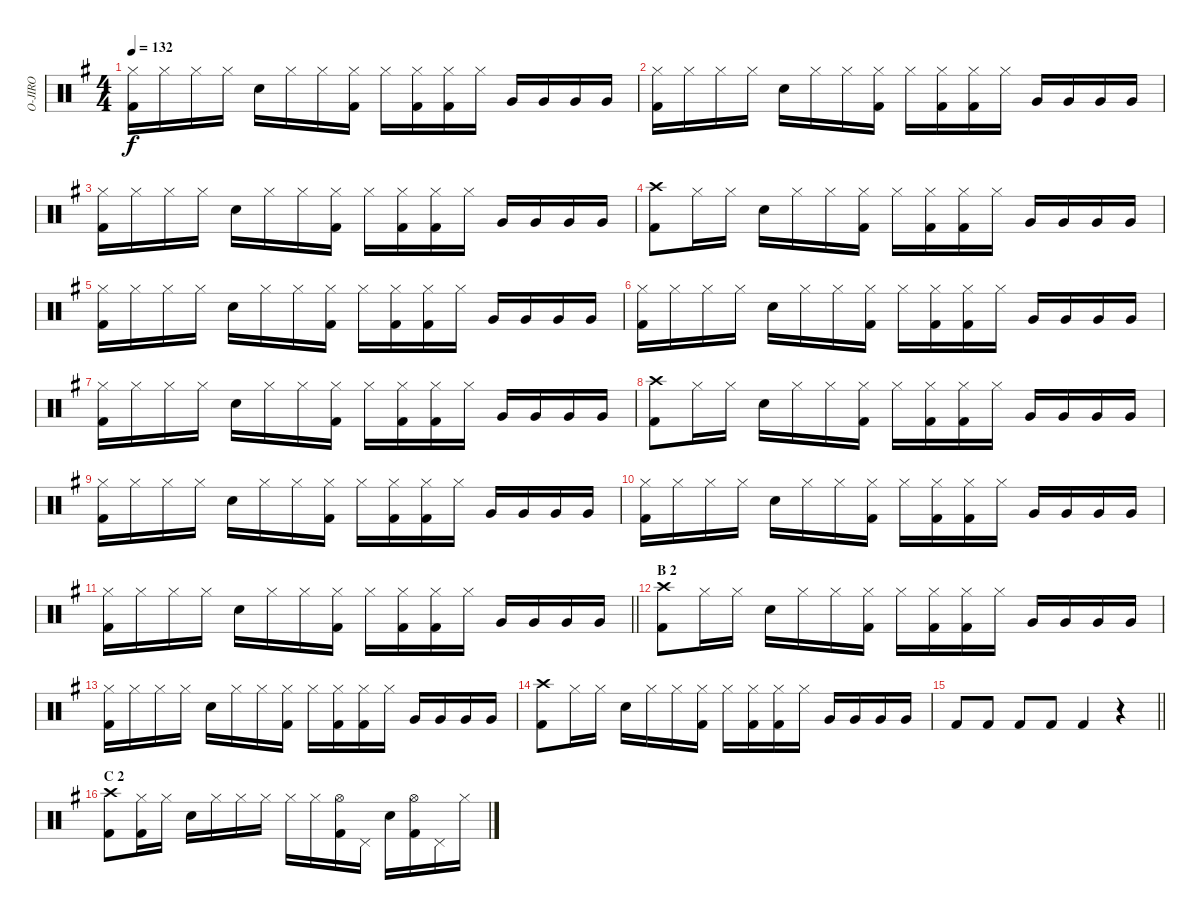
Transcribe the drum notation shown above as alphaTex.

\track ("O-JIRO" "O-JIRO") {instrument percussion}
\staff {score}
\articulation defaults
\ts (4 4)
\tempo 132
\clef neutral
\ks g
("Hi-Hat (closed)" "Kick (hit) 2").16{dy f} "Hi-Hat (closed)".16 "Hi-Hat (closed)".16 "Hi-Hat (closed)".16 "Snare (hit) 2".16 "Hi-Hat (closed)".16 "Hi-Hat (closed)".16 ("Hi-Hat (closed)" "Kick (hit) 2").16 "Hi-Hat (closed)".16 ("Hi-Hat (closed)" "Kick (hit) 2").16 ("Hi-Hat (closed)" "Kick (hit) 2").16 "Hi-Hat (closed)".16 "Very Low Tom (hit)".16 "Very Low Tom (hit)".16 "Very Low Tom (hit)".16 "Very Low Tom (hit)".16 |
("Hi-Hat (closed)" "Kick (hit) 2").16 "Hi-Hat (closed)".16 "Hi-Hat (closed)".16 "Hi-Hat (closed)".16 "Snare (hit) 2".16 "Hi-Hat (closed)".16 "Hi-Hat (closed)".16 ("Hi-Hat (closed)" "Kick (hit) 2").16 "Hi-Hat (closed)".16 ("Hi-Hat (closed)" "Kick (hit) 2").16 ("Hi-Hat (closed)" "Kick (hit) 2").16 "Hi-Hat (closed)".16 "Very Low Tom (hit)".16 "Very Low Tom (hit)".16 "Very Low Tom (hit)".16 "Very Low Tom (hit)".16 |
("Hi-Hat (closed)" "Kick (hit) 2").16 "Hi-Hat (closed)".16 "Hi-Hat (closed)".16 "Hi-Hat (closed)".16 "Snare (hit) 2".16 "Hi-Hat (closed)".16 "Hi-Hat (closed)".16 ("Hi-Hat (closed)" "Kick (hit) 2").16 "Hi-Hat (closed)".16 ("Hi-Hat (closed)" "Kick (hit) 2").16 ("Hi-Hat (closed)" "Kick (hit) 2").16 "Hi-Hat (closed)".16 "Very Low Tom (hit)".16 "Very Low Tom (hit)".16 "Very Low Tom (hit)".16 "Very Low Tom (hit)".16 |
("Crash high (hit)" "Kick (hit) 2").8 "Hi-Hat (closed)".16 "Hi-Hat (closed)".16 "Snare (hit) 2".16 "Hi-Hat (closed)".16 "Hi-Hat (closed)".16 ("Hi-Hat (closed)" "Kick (hit) 2").16 "Hi-Hat (closed)".16 ("Hi-Hat (closed)" "Kick (hit) 2").16 ("Hi-Hat (closed)" "Kick (hit) 2").16 "Hi-Hat (closed)".16 "Very Low Tom (hit)".16 "Very Low Tom (hit)".16 "Very Low Tom (hit)".16 "Very Low Tom (hit)".16 |
("Hi-Hat (closed)" "Kick (hit) 2").16 "Hi-Hat (closed)".16 "Hi-Hat (closed)".16 "Hi-Hat (closed)".16 "Snare (hit) 2".16 "Hi-Hat (closed)".16 "Hi-Hat (closed)".16 ("Hi-Hat (closed)" "Kick (hit) 2").16 "Hi-Hat (closed)".16 ("Hi-Hat (closed)" "Kick (hit) 2").16 ("Hi-Hat (closed)" "Kick (hit) 2").16 "Hi-Hat (closed)".16 "Very Low Tom (hit)".16 "Very Low Tom (hit)".16 "Very Low Tom (hit)".16 "Very Low Tom (hit)".16 |
("Hi-Hat (closed)" "Kick (hit) 2").16 "Hi-Hat (closed)".16 "Hi-Hat (closed)".16 "Hi-Hat (closed)".16 "Snare (hit) 2".16 "Hi-Hat (closed)".16 "Hi-Hat (closed)".16 ("Hi-Hat (closed)" "Kick (hit) 2").16 "Hi-Hat (closed)".16 ("Hi-Hat (closed)" "Kick (hit) 2").16 ("Hi-Hat (closed)" "Kick (hit) 2").16 "Hi-Hat (closed)".16 "Very Low Tom (hit)".16 "Very Low Tom (hit)".16 "Very Low Tom (hit)".16 "Very Low Tom (hit)".16 |
("Hi-Hat (closed)" "Kick (hit) 2").16 "Hi-Hat (closed)".16 "Hi-Hat (closed)".16 "Hi-Hat (closed)".16 "Snare (hit) 2".16 "Hi-Hat (closed)".16 "Hi-Hat (closed)".16 ("Hi-Hat (closed)" "Kick (hit) 2").16 "Hi-Hat (closed)".16 ("Hi-Hat (closed)" "Kick (hit) 2").16 ("Hi-Hat (closed)" "Kick (hit) 2").16 "Hi-Hat (closed)".16 "Very Low Tom (hit)".16 "Very Low Tom (hit)".16 "Very Low Tom (hit)".16 "Very Low Tom (hit)".16 |
("Crash high (hit)" "Kick (hit) 2").8 "Hi-Hat (closed)".16 "Hi-Hat (closed)".16 "Snare (hit) 2".16 "Hi-Hat (closed)".16 "Hi-Hat (closed)".16 ("Hi-Hat (closed)" "Kick (hit) 2").16 "Hi-Hat (closed)".16 ("Hi-Hat (closed)" "Kick (hit) 2").16 ("Hi-Hat (closed)" "Kick (hit) 2").16 "Hi-Hat (closed)".16 "Very Low Tom (hit)".16 "Very Low Tom (hit)".16 "Very Low Tom (hit)".16 "Very Low Tom (hit)".16 |
("Hi-Hat (closed)" "Kick (hit) 2").16 "Hi-Hat (closed)".16 "Hi-Hat (closed)".16 "Hi-Hat (closed)".16 "Snare (hit) 2".16 "Hi-Hat (closed)".16 "Hi-Hat (closed)".16 ("Hi-Hat (closed)" "Kick (hit) 2").16 "Hi-Hat (closed)".16 ("Hi-Hat (closed)" "Kick (hit) 2").16 ("Hi-Hat (closed)" "Kick (hit) 2").16 "Hi-Hat (closed)".16 "Very Low Tom (hit)".16 "Very Low Tom (hit)".16 "Very Low Tom (hit)".16 "Very Low Tom (hit)".16 |
("Hi-Hat (closed)" "Kick (hit) 2").16 "Hi-Hat (closed)".16 "Hi-Hat (closed)".16 "Hi-Hat (closed)".16 "Snare (hit) 2".16 "Hi-Hat (closed)".16 "Hi-Hat (closed)".16 ("Hi-Hat (closed)" "Kick (hit) 2").16 "Hi-Hat (closed)".16 ("Hi-Hat (closed)" "Kick (hit) 2").16 ("Hi-Hat (closed)" "Kick (hit) 2").16 "Hi-Hat (closed)".16 "Very Low Tom (hit)".16 "Very Low Tom (hit)".16 "Very Low Tom (hit)".16 "Very Low Tom (hit)".16 |
\barLineRight lightlight
("Hi-Hat (closed)" "Kick (hit) 2").16 "Hi-Hat (closed)".16 "Hi-Hat (closed)".16 "Hi-Hat (closed)".16 "Snare (hit) 2".16 "Hi-Hat (closed)".16 "Hi-Hat (closed)".16 ("Hi-Hat (closed)" "Kick (hit) 2").16 "Hi-Hat (closed)".16 ("Hi-Hat (closed)" "Kick (hit) 2").16 ("Hi-Hat (closed)" "Kick (hit) 2").16 "Hi-Hat (closed)".16 "Very Low Tom (hit)".16 "Very Low Tom (hit)".16 "Very Low Tom (hit)".16 "Very Low Tom (hit)".16 |
\section ("" "B 2")
("Crash high (hit)" "Kick (hit) 2").8 "Hi-Hat (closed)".16 "Hi-Hat (closed)".16 "Snare (hit) 2".16 "Hi-Hat (closed)".16 "Hi-Hat (closed)".16 ("Hi-Hat (closed)" "Kick (hit) 2").16 "Hi-Hat (closed)".16 ("Hi-Hat (closed)" "Kick (hit) 2").16 ("Hi-Hat (closed)" "Kick (hit) 2").16 "Hi-Hat (closed)".16 "Very Low Tom (hit)".16 "Very Low Tom (hit)".16 "Very Low Tom (hit)".16 "Very Low Tom (hit)".16 |
("Hi-Hat (closed)" "Kick (hit) 2").16 "Hi-Hat (closed)".16 "Hi-Hat (closed)".16 "Hi-Hat (closed)".16 "Snare (hit) 2".16 "Hi-Hat (closed)".16 "Hi-Hat (closed)".16 ("Hi-Hat (closed)" "Kick (hit) 2").16 "Hi-Hat (closed)".16 ("Hi-Hat (closed)" "Kick (hit) 2").16 ("Hi-Hat (closed)" "Kick (hit) 2").16 "Hi-Hat (closed)".16 "Very Low Tom (hit)".16 "Very Low Tom (hit)".16 "Very Low Tom (hit)".16 "Very Low Tom (hit)".16 |
("Crash high (hit)" "Kick (hit) 2").8 "Hi-Hat (closed)".16 "Hi-Hat (closed)".16 "Snare (hit) 2".16 "Hi-Hat (closed)".16 "Hi-Hat (closed)".16 ("Hi-Hat (closed)" "Kick (hit) 2").16 "Hi-Hat (closed)".16 ("Hi-Hat (closed)" "Kick (hit) 2").16 ("Hi-Hat (closed)" "Kick (hit) 2").16 "Hi-Hat (closed)".16 "Very Low Tom (hit)".16 "Very Low Tom (hit)".16 "Very Low Tom (hit)".16 "Very Low Tom (hit)".16 |
\barLineRight lightlight "Kick (hit) 2".8 "Kick (hit) 2".8 "Kick (hit) 2".8 "Kick (hit) 2".8 "Kick (hit) 2".4
r.4 |
\section ("" "C 2")
("Crash high (hit)" "Kick (hit) 2").8 ("Hi-Hat (closed)" "Kick (hit) 2").16 "Hi-Hat (closed)".16 "Snare (hit) 2".16 "Hi-Hat (closed)".16 "Hi-Hat (closed)".16 "Hi-Hat (closed)".16 "Hi-Hat (closed)".16 "Hi-Hat (closed)".16 ("Hi-Hat (open)" "Kick (hit) 2").16 "Pedal Hi-Hat (hit)".16 "Snare (hit) 2".16 ("Hi-Hat (open)" "Kick (hit) 2").16 "Pedal Hi-Hat (hit)".16 "Hi-Hat (closed)".16
